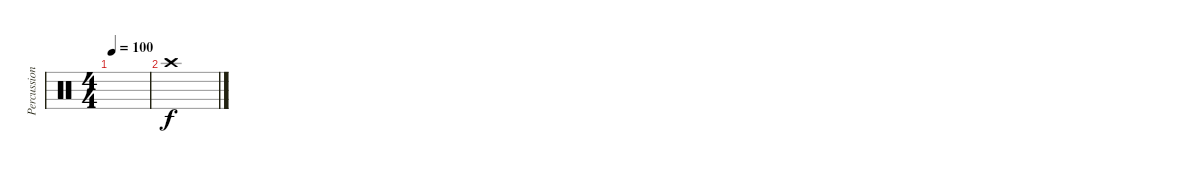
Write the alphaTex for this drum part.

\track ("Percussions" "Percussion") {instrument percussion}
\staff {score}
\articulation defaults
\ts (4 4)
\tempo 100
\clef neutral
\ks c
|
"Crash high (hit)".1
